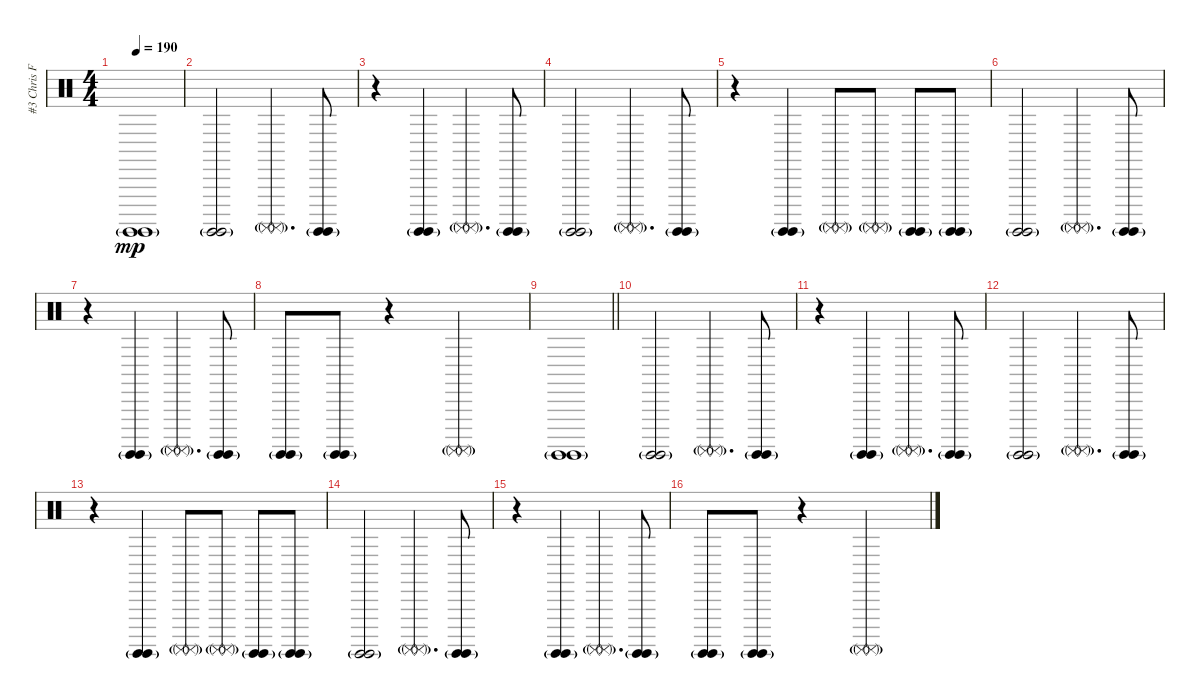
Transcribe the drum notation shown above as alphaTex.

\track ("#3 Chris Fehn" "#3 Chris F") {instrument percussion}
\staff {score}
\articulation defaults
\ts (4 4)
\tempo 190
\clef neutral
\ks c
("Surdo (hit)"{g} "Surdo (hit)"{g}).1{dy mp} |
("Surdo (hit)"{g} "Surdo (hit)"{g}).2 ("Surdo (mute)"{g} "Surdo (mute)"{g}).4{d} ("Surdo (hit)"{g} "Surdo (hit)"{g}).8 |
r.4 ("Surdo (hit)"{g} "Surdo (hit)"{g}).4 ("Surdo (mute)"{g} "Surdo (mute)"{g}).4{d} ("Surdo (hit)"{g} "Surdo (hit)"{g}).8 |
("Surdo (hit)"{g} "Surdo (hit)"{g}).2 ("Surdo (mute)"{g} "Surdo (mute)"{g}).4{d} ("Surdo (hit)"{g} "Surdo (hit)"{g}).8 |
r.4 ("Surdo (hit)"{g} "Surdo (hit)"{g}).4 ("Surdo (mute)"{g} "Surdo (mute)"{g}).8 ("Surdo (mute)"{g} "Surdo (mute)"{g}).8 ("Surdo (hit)"{g} "Surdo (hit)"{g}).8 ("Surdo (hit)"{g} "Surdo (hit)"{g}).8 |
("Surdo (hit)"{g} "Surdo (hit)"{g}).2 ("Surdo (mute)"{g} "Surdo (mute)"{g}).4{d} ("Surdo (hit)"{g} "Surdo (hit)"{g}).8 |
r.4 ("Surdo (hit)"{g} "Surdo (hit)"{g}).4 ("Surdo (mute)"{g} "Surdo (mute)"{g}).4{d} ("Surdo (hit)"{g} "Surdo (hit)"{g}).8 |
("Surdo (hit)"{g} "Surdo (hit)"{g}).8 ("Surdo (hit)"{g} "Surdo (hit)"{g}).8 r.4 ("Surdo (mute)"{g} "Surdo (mute)"{g}).2 |
\barLineRight lightlight
("Surdo (hit)"{g} "Surdo (hit)"{g}).1 |
("Surdo (hit)"{g} "Surdo (hit)"{g}).2 ("Surdo (mute)"{g} "Surdo (mute)"{g}).4{d} ("Surdo (hit)"{g} "Surdo (hit)"{g}).8 |
r.4 ("Surdo (hit)"{g} "Surdo (hit)"{g}).4 ("Surdo (mute)"{g} "Surdo (mute)"{g}).4{d} ("Surdo (hit)"{g} "Surdo (hit)"{g}).8 |
("Surdo (hit)"{g} "Surdo (hit)"{g}).2 ("Surdo (mute)"{g} "Surdo (mute)"{g}).4{d} ("Surdo (hit)"{g} "Surdo (hit)"{g}).8 |
r.4 ("Surdo (hit)"{g} "Surdo (hit)"{g}).4 ("Surdo (mute)"{g} "Surdo (mute)"{g}).8 ("Surdo (mute)"{g} "Surdo (mute)"{g}).8 ("Surdo (hit)"{g} "Surdo (hit)"{g}).8 ("Surdo (hit)"{g} "Surdo (hit)"{g}).8 |
("Surdo (hit)"{g} "Surdo (hit)"{g}).2 ("Surdo (mute)"{g} "Surdo (mute)"{g}).4{d} ("Surdo (hit)"{g} "Surdo (hit)"{g}).8 |
r.4 ("Surdo (hit)"{g} "Surdo (hit)"{g}).4 ("Surdo (mute)"{g} "Surdo (mute)"{g}).4{d} ("Surdo (hit)"{g} "Surdo (hit)"{g}).8 |
("Surdo (hit)"{g} "Surdo (hit)"{g}).8 ("Surdo (hit)"{g} "Surdo (hit)"{g}).8 r.4 ("Surdo (mute)"{g} "Surdo (mute)"{g}).2
